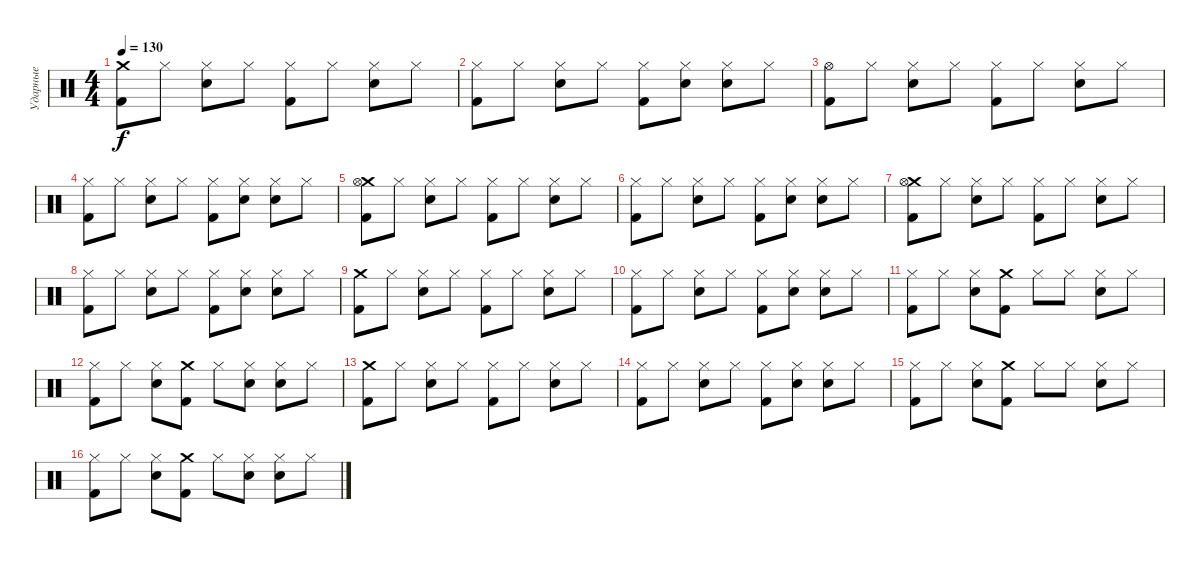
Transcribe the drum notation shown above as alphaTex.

\track ("Ударные" "Ударные") {instrument percussion}
\staff {score}
\articulation defaults
\ts (4 4)
\tempo 130
\clef neutral
\ks c
("Crash medium (hit)" "Kick (hit) 2").8{dy f} "Hi-Hat (closed)".8 ("Hi-Hat (closed)" "Snare (hit) 2").8 "Hi-Hat (closed)".8 ("Hi-Hat (closed)" "Kick (hit) 2").8 "Hi-Hat (closed)".8 ("Hi-Hat (closed)" "Snare (hit) 2").8 "Hi-Hat (closed)".8 |
("Hi-Hat (closed)" "Kick (hit) 2").8 "Hi-Hat (closed)".8 ("Hi-Hat (closed)" "Snare (hit) 2").8 "Hi-Hat (closed)".8 ("Hi-Hat (closed)" "Kick (hit) 2").8 ("Hi-Hat (closed)" "Snare (hit) 2").8 ("Hi-Hat (closed)" "Snare (hit) 2").8 "Hi-Hat (closed)".8 |
("Hi-Hat (open)" "Kick (hit) 2").8 "Hi-Hat (closed)".8 ("Hi-Hat (closed)" "Snare (hit) 2").8 "Hi-Hat (closed)".8 ("Hi-Hat (closed)" "Kick (hit) 2").8 "Hi-Hat (closed)".8 ("Hi-Hat (closed)" "Snare (hit) 2").8 "Hi-Hat (closed)".8 |
("Hi-Hat (closed)" "Kick (hit) 2").8 "Hi-Hat (closed)".8 ("Hi-Hat (closed)" "Snare (hit) 2").8 "Hi-Hat (closed)".8 ("Hi-Hat (closed)" "Kick (hit) 2").8 ("Hi-Hat (closed)" "Snare (hit) 2").8 ("Hi-Hat (closed)" "Snare (hit) 2").8 "Hi-Hat (closed)".8 |
("Crash medium (hit)" "Hi-Hat (open)" "Kick (hit) 2").8 "Hi-Hat (closed)".8 ("Hi-Hat (closed)" "Snare (hit) 2").8 "Hi-Hat (closed)".8 ("Hi-Hat (closed)" "Kick (hit) 2").8 "Hi-Hat (closed)".8 ("Hi-Hat (closed)" "Snare (hit) 2").8 "Hi-Hat (closed)".8 |
("Hi-Hat (closed)" "Kick (hit) 2").8 "Hi-Hat (closed)".8 ("Hi-Hat (closed)" "Snare (hit) 2").8 "Hi-Hat (closed)".8 ("Hi-Hat (closed)" "Kick (hit) 2").8 ("Hi-Hat (closed)" "Snare (hit) 2").8 ("Hi-Hat (closed)" "Snare (hit) 2").8 "Hi-Hat (closed)".8 |
("Crash medium (hit)" "Hi-Hat (open)" "Kick (hit) 2").8 "Hi-Hat (closed)".8 ("Hi-Hat (closed)" "Snare (hit) 2").8 "Hi-Hat (closed)".8 ("Hi-Hat (closed)" "Kick (hit) 2").8 "Hi-Hat (closed)".8 ("Hi-Hat (closed)" "Snare (hit) 2").8 "Hi-Hat (closed)".8 |
("Hi-Hat (closed)" "Kick (hit) 2").8 "Hi-Hat (closed)".8 ("Hi-Hat (closed)" "Snare (hit) 2").8 "Hi-Hat (closed)".8 ("Hi-Hat (closed)" "Kick (hit) 2").8 ("Hi-Hat (closed)" "Snare (hit) 2").8 ("Hi-Hat (closed)" "Snare (hit) 2").8 "Hi-Hat (closed)".8 |
("Crash medium (hit)" "Kick (hit) 2").8 "Hi-Hat (closed)".8 ("Hi-Hat (closed)" "Snare (hit) 2").8 "Hi-Hat (closed)".8 ("Hi-Hat (closed)" "Kick (hit) 2").8 "Hi-Hat (closed)".8 ("Hi-Hat (closed)" "Snare (hit) 2").8 "Hi-Hat (closed)".8 |
("Hi-Hat (closed)" "Kick (hit) 2").8 "Hi-Hat (closed)".8 ("Hi-Hat (closed)" "Snare (hit) 2").8 "Hi-Hat (closed)".8 ("Hi-Hat (closed)" "Kick (hit) 2").8 ("Hi-Hat (closed)" "Snare (hit) 2").8 ("Hi-Hat (closed)" "Snare (hit) 2").8 "Hi-Hat (closed)".8 |
("Hi-Hat (closed)" "Kick (hit) 2").8 "Hi-Hat (closed)".8 ("Hi-Hat (closed)" "Snare (hit) 2").8 ("Crash medium (hit)" "Kick (hit) 2").8 "Hi-Hat (closed)".8 "Hi-Hat (closed)".8 ("Hi-Hat (closed)" "Snare (hit) 2").8 "Hi-Hat (closed)".8 |
("Hi-Hat (closed)" "Kick (hit) 2").8 "Hi-Hat (closed)".8 ("Hi-Hat (closed)" "Snare (hit) 2").8 ("Crash medium (hit)" "Kick (hit) 2").8 "Hi-Hat (closed)".8 ("Hi-Hat (closed)" "Snare (hit) 2").8 ("Hi-Hat (closed)" "Snare (hit) 2").8 "Hi-Hat (closed)".8 |
("Crash medium (hit)" "Kick (hit) 2").8 "Hi-Hat (closed)".8 ("Hi-Hat (closed)" "Snare (hit) 2").8 "Hi-Hat (closed)".8 ("Hi-Hat (closed)" "Kick (hit) 2").8 "Hi-Hat (closed)".8 ("Hi-Hat (closed)" "Snare (hit) 2").8 "Hi-Hat (closed)".8 |
("Hi-Hat (closed)" "Kick (hit) 2").8 "Hi-Hat (closed)".8 ("Hi-Hat (closed)" "Snare (hit) 2").8 "Hi-Hat (closed)".8 ("Hi-Hat (closed)" "Kick (hit) 2").8 ("Hi-Hat (closed)" "Snare (hit) 2").8 ("Hi-Hat (closed)" "Snare (hit) 2").8 "Hi-Hat (closed)".8 |
("Hi-Hat (closed)" "Kick (hit) 2").8 "Hi-Hat (closed)".8 ("Hi-Hat (closed)" "Snare (hit) 2").8 ("Crash medium (hit)" "Kick (hit) 2").8 "Hi-Hat (closed)".8 "Hi-Hat (closed)".8 ("Hi-Hat (closed)" "Snare (hit) 2").8 "Hi-Hat (closed)".8 |
("Hi-Hat (closed)" "Kick (hit) 2").8 "Hi-Hat (closed)".8 ("Hi-Hat (closed)" "Snare (hit) 2").8 ("Crash medium (hit)" "Kick (hit) 2").8 "Hi-Hat (closed)".8 ("Hi-Hat (closed)" "Snare (hit) 2").8 ("Hi-Hat (closed)" "Snare (hit) 2").8 "Hi-Hat (closed)".8
